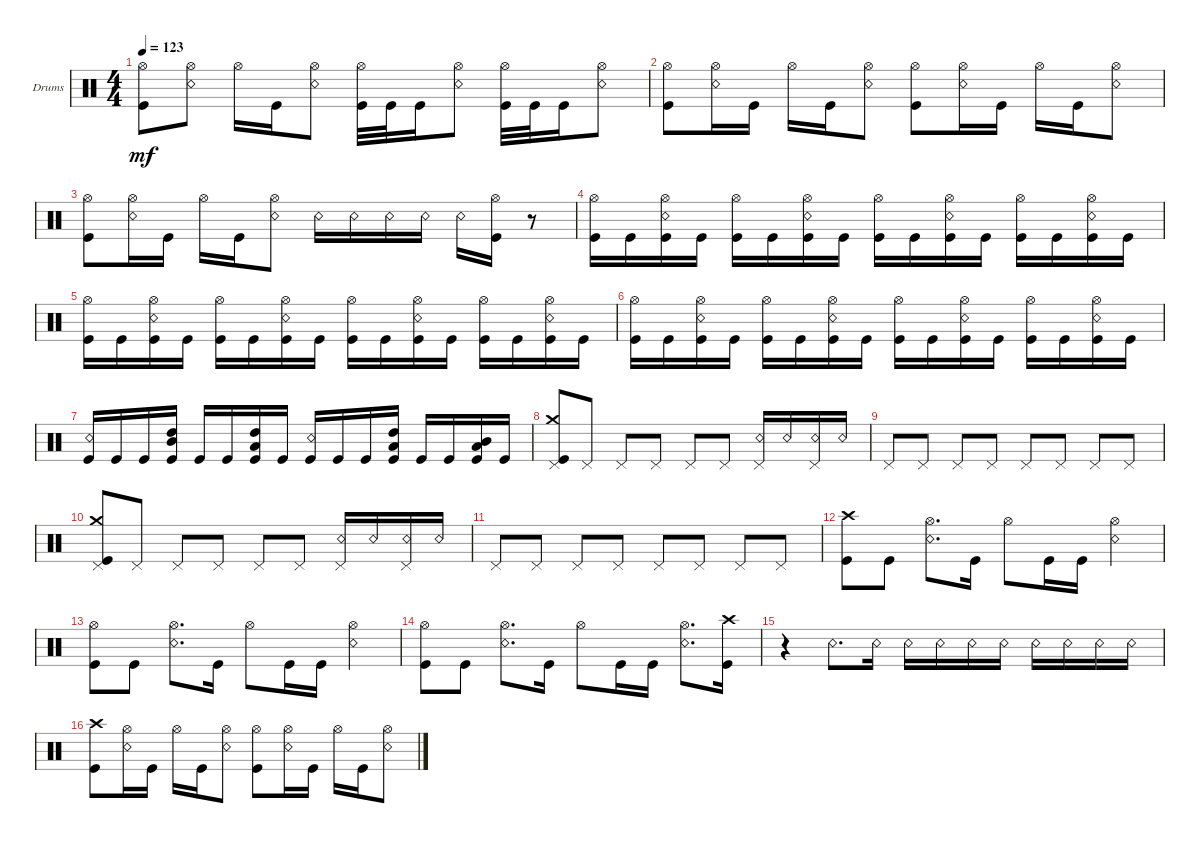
\defaultSystemsLayout 4
\bracketExtendMode groupsimilarinstruments
\firstSystemTrackNameOrientation horizontal
\otherSystemsTrackNameOrientation horizontal
\track ("Drums" "Drums") {instrument percussion}
\staff {score}
\articulation defaults
\ts (4 4)
\tempo 123
\clef neutral
\scale
0.333333
\ks c
("Kick (hit)" "Hi-Hat (open)").8{dy mf} ("Snare (rim shot)" "Hi-Hat (open)").8 "Hi-Hat (open)".16 "Kick (hit)".16 ("Snare (rim shot)" "Hi-Hat (open)").8 ("Kick (hit)" "Hi-Hat (open)").32 "Kick (hit)".32 "Kick (hit)".16 ("Hi-Hat (open)" "Snare (rim shot)").8 ("Kick (hit)" "Hi-Hat (open)").32 "Kick (hit)".32 "Kick (hit)".16 ("Hi-Hat (open)" "Snare (rim shot)").8 |
\scale
0.333333 ("Kick (hit)" "Hi-Hat (open)").8 ("Snare (rim shot)" "Hi-Hat (open)").16 "Kick (hit)".16 "Hi-Hat (open)".16 "Kick (hit)".16 ("Snare (rim shot)" "Hi-Hat (open)").8 ("Kick (hit)" "Hi-Hat (open)").8 ("Snare (rim shot)" "Hi-Hat (open)").16 "Kick (hit)".16 "Hi-Hat (open)".16 "Kick (hit)".16 ("Snare (rim shot)" "Hi-Hat (open)").8 |
\scale
0.333333 ("Kick (hit)" "Hi-Hat (open)").8 ("Snare (rim shot)" "Hi-Hat (open)").16 "Kick (hit)".16 "Hi-Hat (open)".16 "Kick (hit)".16 ("Snare (rim shot)" "Hi-Hat (open)").8 "Snare (rim shot)".16 "Snare (rim shot)".16 "Snare (rim shot)".16 "Snare (rim shot)".16 "Snare (rim shot)".16 ("Hi-Hat (open)" "Kick (hit)").16 r.8 |
\scale
0.333333 ("Kick (hit)" "Hi-Hat (open)").16 "Kick (hit)".16 ("Kick (hit)" "Hi-Hat (open)" "Snare (rim shot)").16 "Kick (hit)".16 ("Kick (hit)" "Hi-Hat (open)").16 "Kick (hit)".16 ("Kick (hit)" "Hi-Hat (open)" "Snare (rim shot)").16 "Kick (hit)".16 ("Kick (hit)" "Hi-Hat (open)").16 "Kick (hit)".16 ("Kick (hit)" "Hi-Hat (open)" "Snare (rim shot)").16 "Kick (hit)".16 ("Kick (hit)" "Hi-Hat (open)").16 "Kick (hit)".16 ("Kick (hit)" "Hi-Hat (open)" "Snare (rim shot)").16 "Kick (hit)".16 |
\scale
0.333333 ("Kick (hit)" "Hi-Hat (open)").16 "Kick (hit)".16 ("Kick (hit)" "Hi-Hat (open)" "Snare (rim shot)").16 "Kick (hit)".16 ("Kick (hit)" "Hi-Hat (open)").16 "Kick (hit)".16 ("Kick (hit)" "Hi-Hat (open)" "Snare (rim shot)").16 "Kick (hit)".16 ("Kick (hit)" "Hi-Hat (open)").16 "Kick (hit)".16 ("Kick (hit)" "Hi-Hat (open)" "Snare (rim shot)").16 "Kick (hit)".16 ("Kick (hit)" "Hi-Hat (open)").16 "Kick (hit)".16 ("Kick (hit)" "Hi-Hat (open)" "Snare (rim shot)").16 "Kick (hit)".16 |
\scale
0.333333 ("Kick (hit)" "Hi-Hat (open)").16 "Kick (hit)".16 ("Kick (hit)" "Hi-Hat (open)" "Snare (rim shot)").16 "Kick (hit)".16 ("Kick (hit)" "Hi-Hat (open)").16 "Kick (hit)".16 ("Kick (hit)" "Hi-Hat (open)" "Snare (rim shot)").16 "Kick (hit)".16 ("Kick (hit)" "Hi-Hat (open)").16 "Kick (hit)".16 ("Kick (hit)" "Hi-Hat (open)" "Snare (rim shot)").16 "Kick (hit)".16 ("Kick (hit)" "Hi-Hat (open)").16 "Kick (hit)".16 ("Kick (hit)" "Hi-Hat (open)" "Snare (rim shot)").16 "Kick (hit)".16 |
\scale
0.333333 ("Kick (hit)" "Snare (rim shot)").16 "Kick (hit)".16 "Kick (hit)".16 ("Kick (hit)" "High Tom (hit)" "Mid Tom (hit)").16 "Kick (hit)".16 "Kick (hit)".16 ("Kick (hit)" "Low Tom (hit)" "High Tom (hit)").16 "Kick (hit)".16 ("Kick (hit)" "Snare (rim shot)").16 "Kick (hit)".16 "Kick (hit)".16 ("Kick (hit)" "High Tom (hit)" "Low Tom (hit)").16 "Kick (hit)".16 "Kick (hit)".16 ("Kick (hit)" "Low Tom (hit)" "Mid Tom (hit)").16 "Kick (hit)".16 |
\scale
0.333333 ("Kick (hit)" "Crash medium (hit)" "Pedal Hi-Hat (hit)").8 "Pedal Hi-Hat (hit)".8 "Pedal Hi-Hat (hit)".8 "Pedal Hi-Hat (hit)".8 "Pedal Hi-Hat (hit)".8 "Pedal Hi-Hat (hit)".8 ("Pedal Hi-Hat (hit)" "Snare (rim shot)").16 "Snare (rim shot)".16 ("Pedal Hi-Hat (hit)" "Snare (rim shot)").16 "Snare (rim shot)".16 |
\scale
0.333333 "Pedal Hi-Hat (hit)".8 "Pedal Hi-Hat (hit)".8 "Pedal Hi-Hat (hit)".8 "Pedal Hi-Hat (hit)".8 "Pedal Hi-Hat (hit)".8 "Pedal Hi-Hat (hit)".8 "Pedal Hi-Hat (hit)".8 "Pedal Hi-Hat (hit)".8 |
\scale
0.333333 ("Kick (hit)" "Crash medium (hit)" "Pedal Hi-Hat (hit)").8 "Pedal Hi-Hat (hit)".8 "Pedal Hi-Hat (hit)".8 "Pedal Hi-Hat (hit)".8 "Pedal Hi-Hat (hit)".8 "Pedal Hi-Hat (hit)".8 ("Pedal Hi-Hat (hit)" "Snare (rim shot)").16 "Snare (rim shot)".16 ("Pedal Hi-Hat (hit)" "Snare (rim shot)").16 "Snare (rim shot)".16 |
\scale
0.333333 "Pedal Hi-Hat (hit)".8 "Pedal Hi-Hat (hit)".8 "Pedal Hi-Hat (hit)".8 "Pedal Hi-Hat (hit)".8 "Pedal Hi-Hat (hit)".8 "Pedal Hi-Hat (hit)".8 "Pedal Hi-Hat (hit)".8 "Pedal Hi-Hat (hit)".8 |
\scale
0.333333 ("Kick (hit)" "Crash high (hit)").8 "Kick (hit)".8 ("Snare (rim shot)" "Hi-Hat (open)").8{d} "Kick (hit)".16 "Hi-Hat (open)".8 "Kick (hit)".16 "Kick (hit)".16 ("Snare (rim shot)" "Hi-Hat (open)").4 |
\scale
0.333333 ("Kick (hit)" "Hi-Hat (open)").8 "Kick (hit)".8 ("Snare (rim shot)" "Hi-Hat (open)").8{d} "Kick (hit)".16 "Hi-Hat (open)".8 "Kick (hit)".16 "Kick (hit)".16 ("Snare (rim shot)" "Hi-Hat (open)").4 |
\scale
0.333333 ("Kick (hit)" "Hi-Hat (open)").8 "Kick (hit)".8 ("Snare (rim shot)" "Hi-Hat (open)").8{d} "Kick (hit)".16 "Hi-Hat (open)".8 "Kick (hit)".16 "Kick (hit)".16 ("Snare (rim shot)" "Hi-Hat (open)").8{d} ("Kick (hit)" "Crash high (hit)").16 |
\scale
0.333333 r.4 "Snare (rim shot)".8{d} "Snare (rim shot)".16 "Snare (rim shot)".16 "Snare (rim shot)".16 "Snare (rim shot)".16 "Snare (rim shot)".16 "Snare (rim shot)".16 "Snare (rim shot)".16 "Snare (rim shot)".16 "Snare (rim shot)".16 |
\scale
0.333333 ("Kick (hit)" "Crash high (hit)").8 ("Snare (rim shot)" "Hi-Hat (open)").16 "Kick (hit)".16 "Hi-Hat (open)".16 "Kick (hit)".16 ("Snare (rim shot)" "Hi-Hat (open)").8 ("Kick (hit)" "Hi-Hat (open)").8 ("Snare (rim shot)" "Hi-Hat (open)").16 "Kick (hit)".16 "Hi-Hat (open)".16 "Kick (hit)".16 ("Snare (rim shot)" "Hi-Hat (open)").8
